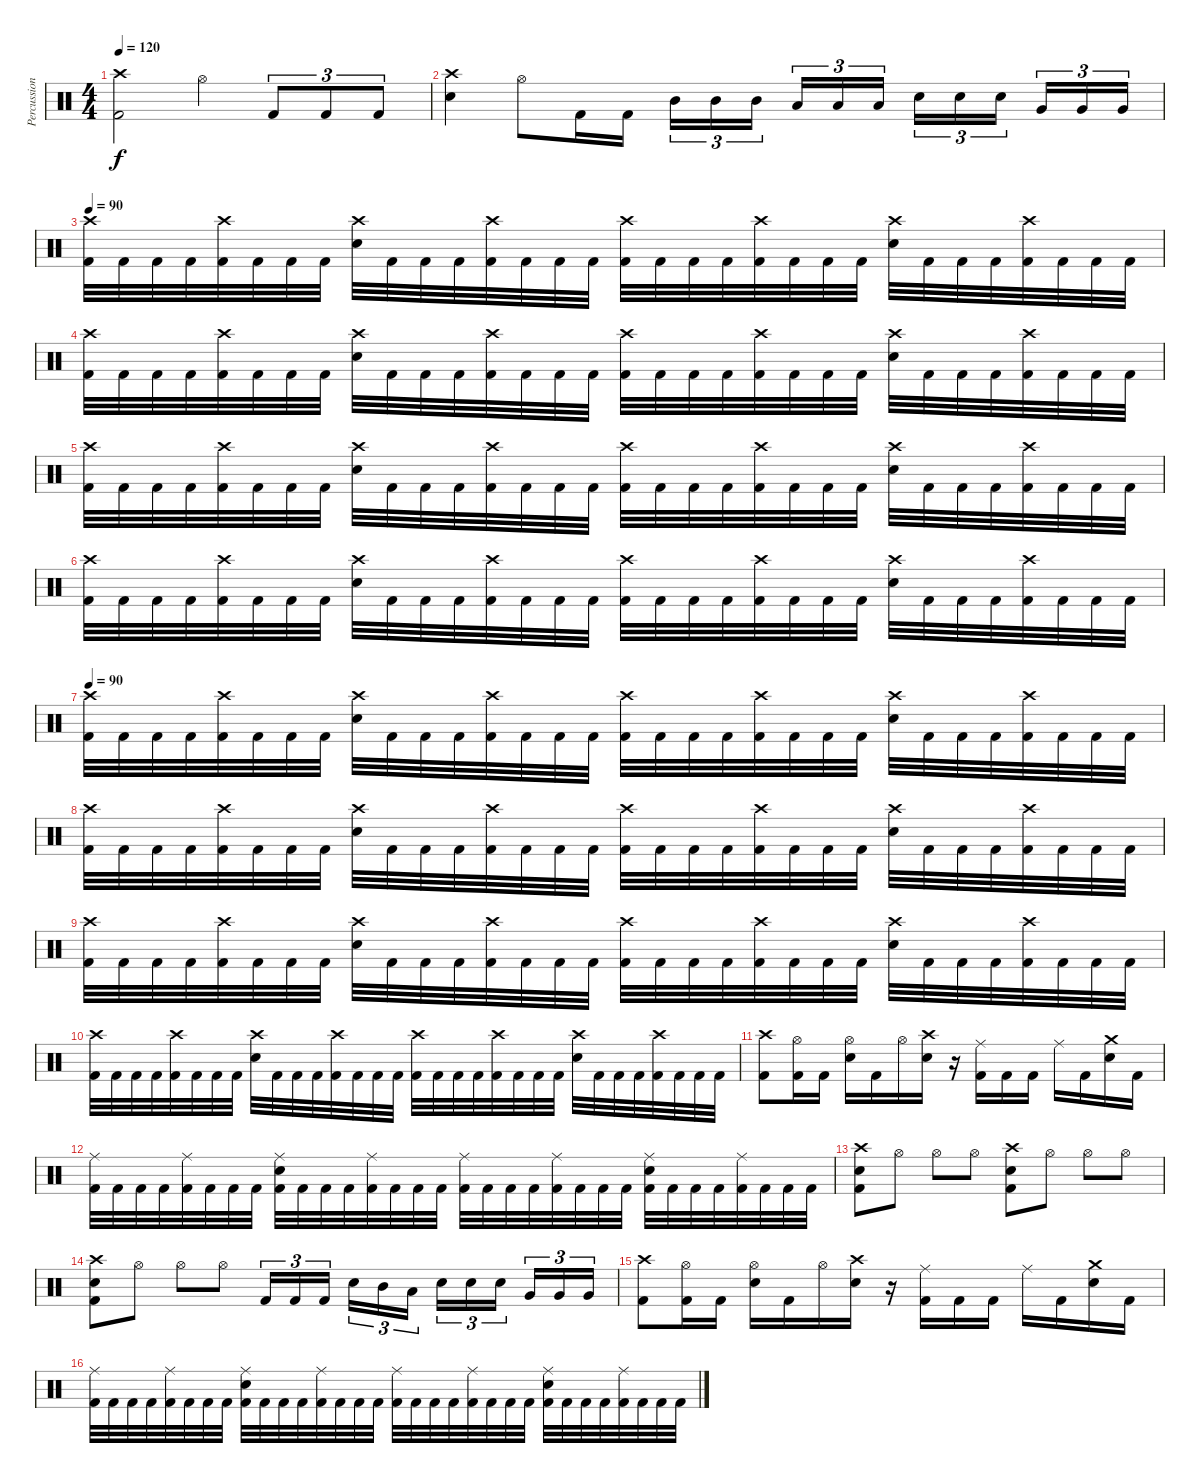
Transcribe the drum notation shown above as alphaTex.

\track ("Percussion" "Percussion") {instrument percussion}
\staff {score}
\articulation defaults
\ts (4 4)
\tempo 120
\clef neutral
\ks c
("Crash high (hit)" "Kick (hit) 2").2{dy f} "Hi-Hat (open)".4 "Kick (hit) 2".8{tu (3 2)} "Kick (hit) 2".8{tu (3 2)} "Kick (hit) 2".8{tu (3 2)} |
("Crash high (hit)" "Electric Snare (hit)").4 "Hi-Hat (open)".8 "Kick (hit) 2".16 "Kick (hit) 2".16 "Mid Tom (hit)".16{tu (3 2)} "Mid Tom (hit)".16{tu (3 2)} "Mid Tom (hit)".16{tu (3 2)} "Low Tom (hit)".16{tu (3 2)} "Low Tom (hit)".16{tu (3 2)} "Low Tom (hit)".16{tu (3 2)} "Electric Snare (hit)".16{tu (3 2)} "Electric Snare (hit)".16{tu (3 2)} "Electric Snare (hit)".16{tu (3 2)} "Very Low Tom (hit)".16{tu (3 2)} "Very Low Tom (hit)".16{tu (3 2)} "Very Low Tom (hit)".16{tu (3 2)} |
\tempo 90
("Crash high (hit)" "Kick (hit) 2").32 "Kick (hit) 2".32 "Kick (hit) 2".32 "Kick (hit) 2".32 ("Crash high (hit)" "Kick (hit) 2").32 "Kick (hit) 2".32 "Kick (hit) 2".32 "Kick (hit) 2".32 ("Crash high (hit)" "Electric Snare (hit)").32 "Kick (hit) 2".32 "Kick (hit) 2".32 "Kick (hit) 2".32 ("Crash high (hit)" "Kick (hit) 2").32 "Kick (hit) 2".32 "Kick (hit) 2".32 "Kick (hit) 2".32 ("Crash high (hit)" "Kick (hit) 2").32 "Kick (hit) 2".32 "Kick (hit) 2".32 "Kick (hit) 2".32 ("Crash high (hit)" "Kick (hit) 2").32 "Kick (hit) 2".32 "Kick (hit) 2".32 "Kick (hit) 2".32 ("Crash high (hit)" "Electric Snare (hit)").32 "Kick (hit) 2".32 "Kick (hit) 2".32 "Kick (hit) 2".32 ("Crash high (hit)" "Kick (hit) 2").32 "Kick (hit) 2".32 "Kick (hit) 2".32 "Kick (hit) 2".32 |
("Crash high (hit)" "Kick (hit) 2").32 "Kick (hit) 2".32 "Kick (hit) 2".32 "Kick (hit) 2".32 ("Crash high (hit)" "Kick (hit) 2").32 "Kick (hit) 2".32 "Kick (hit) 2".32 "Kick (hit) 2".32 ("Crash high (hit)" "Electric Snare (hit)").32 "Kick (hit) 2".32 "Kick (hit) 2".32 "Kick (hit) 2".32 ("Crash high (hit)" "Kick (hit) 2").32 "Kick (hit) 2".32 "Kick (hit) 2".32 "Kick (hit) 2".32 ("Crash high (hit)" "Kick (hit) 2").32 "Kick (hit) 2".32 "Kick (hit) 2".32 "Kick (hit) 2".32 ("Crash high (hit)" "Kick (hit) 2").32 "Kick (hit) 2".32 "Kick (hit) 2".32 "Kick (hit) 2".32 ("Crash high (hit)" "Electric Snare (hit)").32 "Kick (hit) 2".32 "Kick (hit) 2".32 "Kick (hit) 2".32 ("Crash high (hit)" "Kick (hit) 2").32 "Kick (hit) 2".32 "Kick (hit) 2".32 "Kick (hit) 2".32 |
("Crash high (hit)" "Kick (hit) 2").32 "Kick (hit) 2".32 "Kick (hit) 2".32 "Kick (hit) 2".32 ("Crash high (hit)" "Kick (hit) 2").32 "Kick (hit) 2".32 "Kick (hit) 2".32 "Kick (hit) 2".32 ("Crash high (hit)" "Electric Snare (hit)").32 "Kick (hit) 2".32 "Kick (hit) 2".32 "Kick (hit) 2".32 ("Crash high (hit)" "Kick (hit) 2").32 "Kick (hit) 2".32 "Kick (hit) 2".32 "Kick (hit) 2".32 ("Crash high (hit)" "Kick (hit) 2").32 "Kick (hit) 2".32 "Kick (hit) 2".32 "Kick (hit) 2".32 ("Crash high (hit)" "Kick (hit) 2").32 "Kick (hit) 2".32 "Kick (hit) 2".32 "Kick (hit) 2".32 ("Crash high (hit)" "Electric Snare (hit)").32 "Kick (hit) 2".32 "Kick (hit) 2".32 "Kick (hit) 2".32 ("Crash high (hit)" "Kick (hit) 2").32 "Kick (hit) 2".32 "Kick (hit) 2".32 "Kick (hit) 2".32 |
("Crash high (hit)" "Kick (hit) 2").32 "Kick (hit) 2".32 "Kick (hit) 2".32 "Kick (hit) 2".32 ("Crash high (hit)" "Kick (hit) 2").32 "Kick (hit) 2".32 "Kick (hit) 2".32 "Kick (hit) 2".32 ("Crash high (hit)" "Electric Snare (hit)").32 "Kick (hit) 2".32 "Kick (hit) 2".32 "Kick (hit) 2".32 ("Crash high (hit)" "Kick (hit) 2").32 "Kick (hit) 2".32 "Kick (hit) 2".32 "Kick (hit) 2".32 ("Crash high (hit)" "Kick (hit) 2").32 "Kick (hit) 2".32 "Kick (hit) 2".32 "Kick (hit) 2".32 ("Crash high (hit)" "Kick (hit) 2").32 "Kick (hit) 2".32 "Kick (hit) 2".32 "Kick (hit) 2".32 ("Crash high (hit)" "Electric Snare (hit)").32 "Kick (hit) 2".32 "Kick (hit) 2".32 "Kick (hit) 2".32 ("Crash high (hit)" "Kick (hit) 2").32 "Kick (hit) 2".32 "Kick (hit) 2".32 "Kick (hit) 2".32 |
\tempo 90
("Crash high (hit)" "Kick (hit) 2").32 "Kick (hit) 2".32 "Kick (hit) 2".32 "Kick (hit) 2".32 ("Crash high (hit)" "Kick (hit) 2").32 "Kick (hit) 2".32 "Kick (hit) 2".32 "Kick (hit) 2".32 ("Crash high (hit)" "Electric Snare (hit)").32 "Kick (hit) 2".32 "Kick (hit) 2".32 "Kick (hit) 2".32 ("Crash high (hit)" "Kick (hit) 2").32 "Kick (hit) 2".32 "Kick (hit) 2".32 "Kick (hit) 2".32 ("Crash high (hit)" "Kick (hit) 2").32 "Kick (hit) 2".32 "Kick (hit) 2".32 "Kick (hit) 2".32 ("Crash high (hit)" "Kick (hit) 2").32 "Kick (hit) 2".32 "Kick (hit) 2".32 "Kick (hit) 2".32 ("Crash high (hit)" "Electric Snare (hit)").32 "Kick (hit) 2".32 "Kick (hit) 2".32 "Kick (hit) 2".32 ("Crash high (hit)" "Kick (hit) 2").32 "Kick (hit) 2".32 "Kick (hit) 2".32 "Kick (hit) 2".32 |
("Crash high (hit)" "Kick (hit) 2").32 "Kick (hit) 2".32 "Kick (hit) 2".32 "Kick (hit) 2".32 ("Crash high (hit)" "Kick (hit) 2").32 "Kick (hit) 2".32 "Kick (hit) 2".32 "Kick (hit) 2".32 ("Crash high (hit)" "Electric Snare (hit)").32 "Kick (hit) 2".32 "Kick (hit) 2".32 "Kick (hit) 2".32 ("Crash high (hit)" "Kick (hit) 2").32 "Kick (hit) 2".32 "Kick (hit) 2".32 "Kick (hit) 2".32 ("Crash high (hit)" "Kick (hit) 2").32 "Kick (hit) 2".32 "Kick (hit) 2".32 "Kick (hit) 2".32 ("Crash high (hit)" "Kick (hit) 2").32 "Kick (hit) 2".32 "Kick (hit) 2".32 "Kick (hit) 2".32 ("Crash high (hit)" "Electric Snare (hit)").32 "Kick (hit) 2".32 "Kick (hit) 2".32 "Kick (hit) 2".32 ("Crash high (hit)" "Kick (hit) 2").32 "Kick (hit) 2".32 "Kick (hit) 2".32 "Kick (hit) 2".32 |
("Crash high (hit)" "Kick (hit) 2").32 "Kick (hit) 2".32 "Kick (hit) 2".32 "Kick (hit) 2".32 ("Crash high (hit)" "Kick (hit) 2").32 "Kick (hit) 2".32 "Kick (hit) 2".32 "Kick (hit) 2".32 ("Crash high (hit)" "Electric Snare (hit)").32 "Kick (hit) 2".32 "Kick (hit) 2".32 "Kick (hit) 2".32 ("Crash high (hit)" "Kick (hit) 2").32 "Kick (hit) 2".32 "Kick (hit) 2".32 "Kick (hit) 2".32 ("Crash high (hit)" "Kick (hit) 2").32 "Kick (hit) 2".32 "Kick (hit) 2".32 "Kick (hit) 2".32 ("Crash high (hit)" "Kick (hit) 2").32 "Kick (hit) 2".32 "Kick (hit) 2".32 "Kick (hit) 2".32 ("Crash high (hit)" "Electric Snare (hit)").32 "Kick (hit) 2".32 "Kick (hit) 2".32 "Kick (hit) 2".32 ("Crash high (hit)" "Kick (hit) 2").32 "Kick (hit) 2".32 "Kick (hit) 2".32 "Kick (hit) 2".32 |
("Crash high (hit)" "Kick (hit) 2").32 "Kick (hit) 2".32 "Kick (hit) 2".32 "Kick (hit) 2".32 ("Crash high (hit)" "Kick (hit) 2").32 "Kick (hit) 2".32 "Kick (hit) 2".32 "Kick (hit) 2".32 ("Crash high (hit)" "Electric Snare (hit)").32 "Kick (hit) 2".32 "Kick (hit) 2".32 "Kick (hit) 2".32 ("Crash high (hit)" "Kick (hit) 2").32 "Kick (hit) 2".32 "Kick (hit) 2".32 "Kick (hit) 2".32 ("Crash high (hit)" "Kick (hit) 2").32 "Kick (hit) 2".32 "Kick (hit) 2".32 "Kick (hit) 2".32 ("Crash high (hit)" "Kick (hit) 2").32 "Kick (hit) 2".32 "Kick (hit) 2".32 "Kick (hit) 2".32 ("Crash high (hit)" "Electric Snare (hit)").32 "Kick (hit) 2".32 "Kick (hit) 2".32 "Kick (hit) 2".32 ("Crash high (hit)" "Kick (hit) 2").32 "Kick (hit) 2".32 "Kick (hit) 2".32 "Kick (hit) 2".32 |
("Crash high (hit)" "Kick (hit) 2").8 ("Hi-Hat (open)" "Kick (hit) 2").16 "Kick (hit) 2".16 ("Hi-Hat (open)" "Electric Snare (hit)").16 "Kick (hit) 2".16 "Hi-Hat (open)".16 ("Crash high (hit)" "Electric Snare (hit)").16 r.16 ("Ride (middle)" "Kick (hit) 2").16 "Kick (hit) 2".16 "Kick (hit) 2".16 "Ride (middle)".16 "Kick (hit) 2".16 ("Crash medium (hit)" "Electric Snare (hit)").16 "Kick (hit) 2".16 |
("Ride (middle)" "Kick (hit) 2").32 "Kick (hit) 2".32 "Kick (hit) 2".32 "Kick (hit) 2".32 ("Ride (middle)" "Kick (hit) 2").32 "Kick (hit) 2".32 "Kick (hit) 2".32 "Kick (hit) 2".32 ("Ride (middle)" "Electric Snare (hit)" "Kick (hit) 2").32 "Kick (hit) 2".32 "Kick (hit) 2".32 "Kick (hit) 2".32 ("Ride (middle)" "Kick (hit) 2").32 "Kick (hit) 2".32 "Kick (hit) 2".32 "Kick (hit) 2".32 ("Ride (middle)" "Kick (hit) 2").32 "Kick (hit) 2".32 "Kick (hit) 2".32 "Kick (hit) 2".32 ("Ride (middle)" "Kick (hit) 2").32 "Kick (hit) 2".32 "Kick (hit) 2".32 "Kick (hit) 2".32 ("Ride (middle)" "Electric Snare (hit)" "Kick (hit) 2").32 "Kick (hit) 2".32 "Kick (hit) 2".32 "Kick (hit) 2".32 ("Ride (middle)" "Kick (hit) 2").32 "Kick (hit) 2".32 "Kick (hit) 2".32 "Kick (hit) 2".32 |
("Crash high (hit)" "Electric Snare (hit)" "Kick (hit) 2").8 "Hi-Hat (open)".8 "Hi-Hat (open)".8 "Hi-Hat (open)".8 ("Crash high (hit)" "Electric Snare (hit)" "Kick (hit) 2").8 "Hi-Hat (open)".8 "Hi-Hat (open)".8 "Hi-Hat (open)".8 |
("Crash high (hit)" "Electric Snare (hit)" "Kick (hit) 2").8 "Hi-Hat (open)".8 "Hi-Hat (open)".8 "Hi-Hat (open)".8 "Kick (hit) 2".16{tu (3 2)} "Kick (hit) 2".16{tu (3 2)} "Kick (hit) 2".16{tu (3 2)} "Electric Snare (hit)".16{tu (3 2)} "Mid Tom (hit)".16{tu (3 2)} "Low Tom (hit)".16{tu (3 2)} "Electric Snare (hit)".16{tu (3 2)} "Electric Snare (hit)".16{tu (3 2)} "Electric Snare (hit)".16{tu (3 2)} "Very Low Tom (hit)".16{tu (3 2)} "Very Low Tom (hit)".16{tu (3 2)} "Very Low Tom (hit)".16{tu (3 2)} |
("Crash high (hit)" "Kick (hit) 2").8 ("Hi-Hat (open)" "Kick (hit) 2").16 "Kick (hit) 2".16 ("Hi-Hat (open)" "Electric Snare (hit)").16 "Kick (hit) 2".16 "Hi-Hat (open)".16 ("Crash high (hit)" "Electric Snare (hit)").16 r.16 ("Ride (middle)" "Kick (hit) 2").16 "Kick (hit) 2".16 "Kick (hit) 2".16 "Ride (middle)".16 "Kick (hit) 2".16 ("Crash medium (hit)" "Electric Snare (hit)").16 "Kick (hit) 2".16 |
("Ride (middle)" "Kick (hit) 2").32 "Kick (hit) 2".32 "Kick (hit) 2".32 "Kick (hit) 2".32 ("Ride (middle)" "Kick (hit) 2").32 "Kick (hit) 2".32 "Kick (hit) 2".32 "Kick (hit) 2".32 ("Ride (middle)" "Electric Snare (hit)" "Kick (hit) 2").32 "Kick (hit) 2".32 "Kick (hit) 2".32 "Kick (hit) 2".32 ("Ride (middle)" "Kick (hit) 2").32 "Kick (hit) 2".32 "Kick (hit) 2".32 "Kick (hit) 2".32 ("Ride (middle)" "Kick (hit) 2").32 "Kick (hit) 2".32 "Kick (hit) 2".32 "Kick (hit) 2".32 ("Ride (middle)" "Kick (hit) 2").32 "Kick (hit) 2".32 "Kick (hit) 2".32 "Kick (hit) 2".32 ("Ride (middle)" "Electric Snare (hit)" "Kick (hit) 2").32 "Kick (hit) 2".32 "Kick (hit) 2".32 "Kick (hit) 2".32 ("Ride (middle)" "Kick (hit) 2").32 "Kick (hit) 2".32 "Kick (hit) 2".32 "Kick (hit) 2".32
